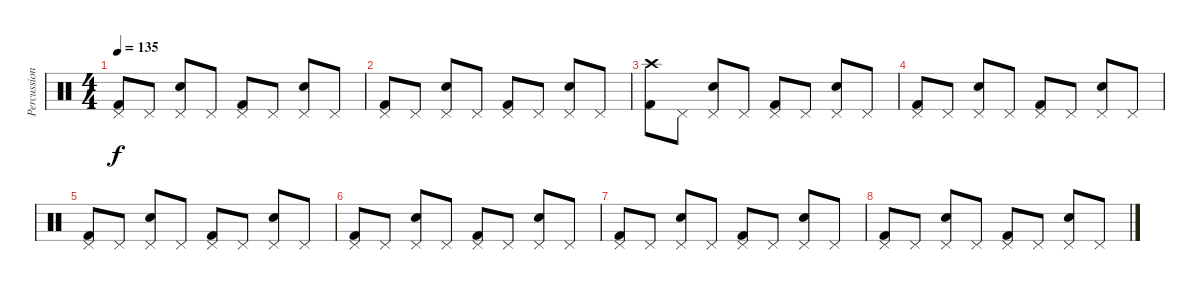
\track ("Percussion" "Percussion") {instrument percussion}
\staff {score}
\articulation defaults
\ts (4 4)
\tempo 135
\clef neutral
\ks c
("Pedal Hi-Hat (hit)" "Kick (hit) 2").8{dy f} "Pedal Hi-Hat (hit)".8 ("Pedal Hi-Hat (hit)" "Snare (hit) 2").8 "Pedal Hi-Hat (hit)".8 ("Pedal Hi-Hat (hit)" "Kick (hit) 2").8 "Pedal Hi-Hat (hit)".8 ("Pedal Hi-Hat (hit)" "Snare (hit) 2").8 "Pedal Hi-Hat (hit)".8 |
("Pedal Hi-Hat (hit)" "Kick (hit) 2").8 "Pedal Hi-Hat (hit)".8 ("Pedal Hi-Hat (hit)" "Snare (hit) 2").8 "Pedal Hi-Hat (hit)".8 ("Pedal Hi-Hat (hit)" "Kick (hit) 2").8 "Pedal Hi-Hat (hit)".8 ("Pedal Hi-Hat (hit)" "Snare (hit) 2").8 "Pedal Hi-Hat (hit)".8 |
("Crash high (hit)" "Kick (hit) 2").8 "Pedal Hi-Hat (hit)".8 ("Pedal Hi-Hat (hit)" "Snare (hit) 2").8 "Pedal Hi-Hat (hit)".8 ("Pedal Hi-Hat (hit)" "Kick (hit) 2").8 "Pedal Hi-Hat (hit)".8 ("Pedal Hi-Hat (hit)" "Snare (hit) 2").8 "Pedal Hi-Hat (hit)".8 |
("Pedal Hi-Hat (hit)" "Kick (hit) 2").8 "Pedal Hi-Hat (hit)".8 ("Pedal Hi-Hat (hit)" "Snare (hit) 2").8 "Pedal Hi-Hat (hit)".8 ("Pedal Hi-Hat (hit)" "Kick (hit) 2").8 "Pedal Hi-Hat (hit)".8 ("Pedal Hi-Hat (hit)" "Snare (hit) 2").8 "Pedal Hi-Hat (hit)".8 |
("Pedal Hi-Hat (hit)" "Kick (hit) 2").8 "Pedal Hi-Hat (hit)".8 ("Pedal Hi-Hat (hit)" "Snare (hit) 2").8 "Pedal Hi-Hat (hit)".8 ("Pedal Hi-Hat (hit)" "Kick (hit) 2").8 "Pedal Hi-Hat (hit)".8 ("Pedal Hi-Hat (hit)" "Snare (hit) 2").8 "Pedal Hi-Hat (hit)".8 |
("Pedal Hi-Hat (hit)" "Kick (hit) 2").8 "Pedal Hi-Hat (hit)".8 ("Pedal Hi-Hat (hit)" "Snare (hit) 2").8 "Pedal Hi-Hat (hit)".8 ("Pedal Hi-Hat (hit)" "Kick (hit) 2").8 "Pedal Hi-Hat (hit)".8 ("Pedal Hi-Hat (hit)" "Snare (hit) 2").8 "Pedal Hi-Hat (hit)".8 |
("Pedal Hi-Hat (hit)" "Kick (hit) 2").8 "Pedal Hi-Hat (hit)".8 ("Pedal Hi-Hat (hit)" "Snare (hit) 2").8 "Pedal Hi-Hat (hit)".8 ("Pedal Hi-Hat (hit)" "Kick (hit) 2").8 "Pedal Hi-Hat (hit)".8 ("Pedal Hi-Hat (hit)" "Snare (hit) 2").8 "Pedal Hi-Hat (hit)".8 |
("Pedal Hi-Hat (hit)" "Kick (hit) 2").8 "Pedal Hi-Hat (hit)".8 ("Pedal Hi-Hat (hit)" "Snare (hit) 2").8 "Pedal Hi-Hat (hit)".8 ("Pedal Hi-Hat (hit)" "Kick (hit) 2").8 "Pedal Hi-Hat (hit)".8 ("Pedal Hi-Hat (hit)" "Snare (hit) 2").8 "Pedal Hi-Hat (hit)".8
